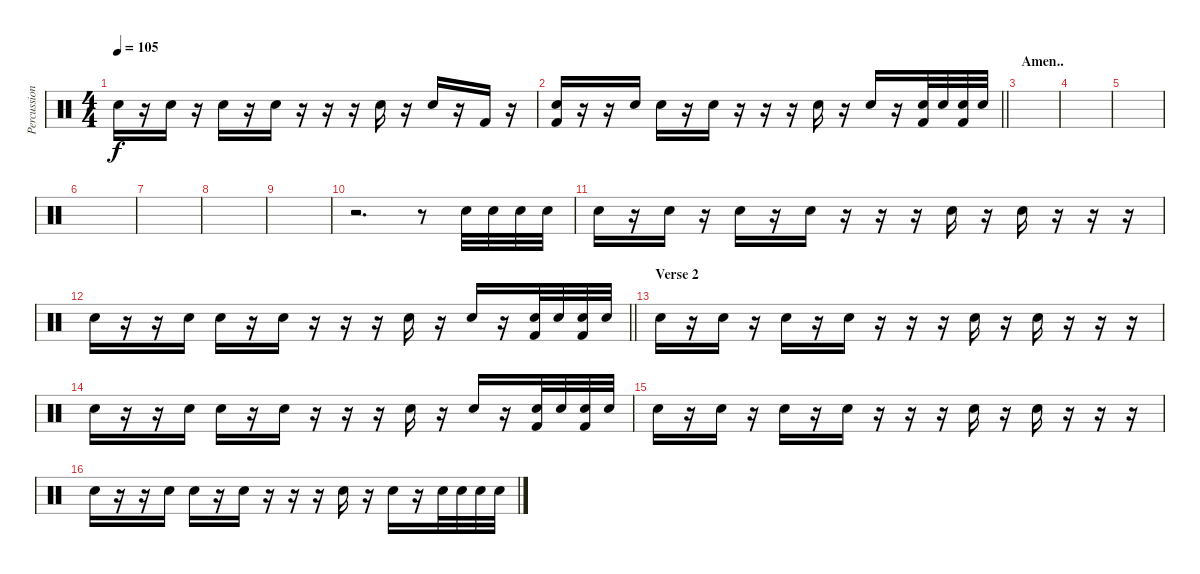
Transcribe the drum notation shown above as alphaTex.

\track ("Percussion" "Percussion") {instrument percussion}
\staff {score}
\articulation defaults
\ts (4 4)
\tempo 105
\clef neutral
\ks c "Snare (hit) 2".16{dy f}
r.16 "Snare (hit) 2".16 r.16 "Snare (hit) 2".16 r.16 "Snare (hit) 2".16 r.16 r.16 r.16 "Snare (hit) 2".16 r.16 "Snare (hit) 2".16 r.16 "Kick (hit) 2".16 r.16 |
\barLineRight lightlight
("Snare (hit) 2" "Kick (hit) 2").16 r.16 r.16 "Snare (hit) 2".16 "Snare (hit) 2".16 r.16 "Snare (hit) 2".16 r.16 r.16 r.16 "Snare (hit) 2".16 r.16 "Snare (hit) 2".16 r.16 ("Snare (hit) 2" "Kick (hit) 2").32 "Snare (hit) 2".32 ("Snare (hit) 2" "Kick (hit) 2").32 "Snare (hit) 2".32 |
\section ("" "Amen..")
|
|
|
|
|
|
|
r.2{d} r.8 "Snare (hit) 2".32 "Snare (hit) 2".32 "Snare (hit) 2".32 "Snare (hit) 2".32 |
"Snare (hit) 2".16 r.16 "Snare (hit) 2".16 r.16 "Snare (hit) 2".16 r.16 "Snare (hit) 2".16 r.16 r.16 r.16 "Snare (hit) 2".16 r.16 "Snare (hit) 2".16 r.16 r.16 r.16 |
\barLineRight lightlight "Snare (hit) 2".16
r.16 r.16 "Snare (hit) 2".16 "Snare (hit) 2".16 r.16 "Snare (hit) 2".16 r.16 r.16 r.16 "Snare (hit) 2".16 r.16 "Snare (hit) 2".16 r.16 ("Snare (hit) 2" "Kick (hit) 2").32 "Snare (hit) 2".32 ("Snare (hit) 2" "Kick (hit) 2").32 "Snare (hit) 2".32 |
\section ("" "Verse 2")
"Snare (hit) 2".16 r.16 "Snare (hit) 2".16 r.16 "Snare (hit) 2".16 r.16 "Snare (hit) 2".16 r.16 r.16 r.16 "Snare (hit) 2".16 r.16 "Snare (hit) 2".16 r.16 r.16 r.16 |
"Snare (hit) 2".16 r.16 r.16 "Snare (hit) 2".16 "Snare (hit) 2".16 r.16 "Snare (hit) 2".16 r.16 r.16 r.16 "Snare (hit) 2".16 r.16 "Snare (hit) 2".16 r.16 ("Snare (hit) 2" "Kick (hit) 2").32 "Snare (hit) 2".32 ("Snare (hit) 2" "Kick (hit) 2").32 "Snare (hit) 2".32 |
"Snare (hit) 2".16 r.16 "Snare (hit) 2".16 r.16 "Snare (hit) 2".16 r.16 "Snare (hit) 2".16 r.16 r.16 r.16 "Snare (hit) 2".16 r.16 "Snare (hit) 2".16 r.16 r.16 r.16 |
"Snare (hit) 2".16 r.16 r.16 "Snare (hit) 2".16 "Snare (hit) 2".16 r.16 "Snare (hit) 2".16 r.16 r.16 r.16 "Snare (hit) 2".16 r.16 "Snare (hit) 2".16 r.16 "Snare (hit) 2".32 "Snare (hit) 2".32 "Snare (hit) 2".32 "Snare (hit) 2".32
